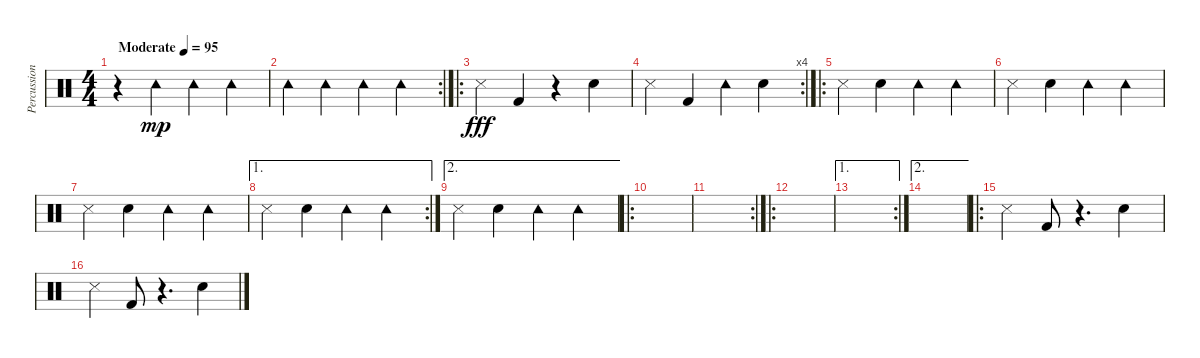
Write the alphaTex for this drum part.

\track ("Percussion" "Percussion") {instrument percussion}
\staff {score}
\articulation defaults
\ts (4 4)
\tempo (95 "Moderate")
\clef neutral
\ks c
r.4{dy mp} "Tambourine (hit)".4 "Tambourine (hit)".4 "Tambourine (hit)".4 |
\rc 2 "Tambourine (hit)".4 "Tambourine (hit)".4 "Tambourine (hit)".4 "Tambourine (hit)".4
|
\ro "Snare (side stick) 3".4{dy fff} "Kick (hit) 2".4
r.4 "Hand Clap (hit)".4 |
\rc 4 "Snare (side stick) 3".4 "Kick (hit) 2".4 "Tambourine (hit)".4 "Hand Clap (hit)".4
|
\ro "Snare (side stick) 3".4 "Hand Clap (hit)".4 "Tambourine (hit)".4 "Tambourine (hit)".4
|
"Snare (side stick) 3".4 "Hand Clap (hit)".4 "Tambourine (hit)".4 "Tambourine (hit)".4 |
"Snare (side stick) 3".4 "Hand Clap (hit)".4 "Tambourine (hit)".4 "Tambourine (hit)".4 |
\ae 1
\rc 2 "Snare (side stick) 3".4 "Hand Clap (hit)".4 "Tambourine (hit)".4 "Tambourine (hit)".4
|
\ae 2 "Snare (side stick) 3".4 "Hand Clap (hit)".4 "Tambourine (hit)".4 "Tambourine (hit)".4
|
\ro
|
\rc 2
|
\ro
|
\ae 1
\rc 2
|
\ae 2
|
\ro "Snare (side stick) 3".4 "Kick (hit) 2".8
r.4{d} "Hand Clap (hit)".4 |
"Snare (side stick) 3".4 "Kick (hit) 2".8 r.4{d} "Hand Clap (hit)".4
